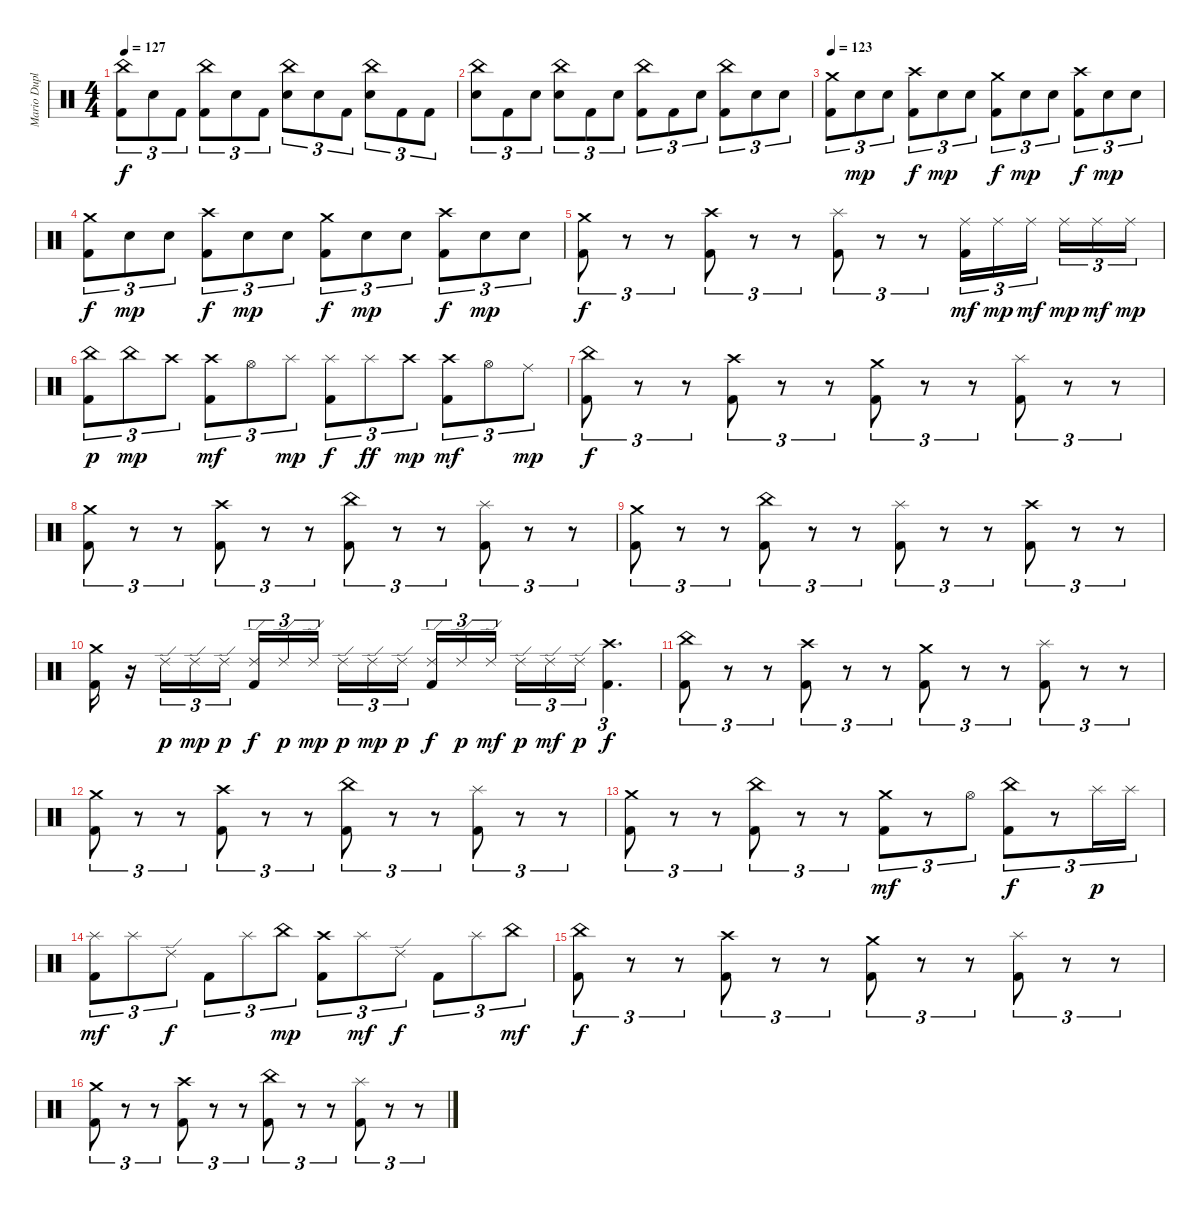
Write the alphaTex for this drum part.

\track ("Mario Duplantier" "Mario Dupl") {instrument percussion}
\staff {score}
\articulation defaults
\ts (4 4)
\tempo 127
\clef neutral
\ks c
("China (hit)" "Kick (hit) 2").8{tu (3 2) dy f} "Electric Snare (hit)".8{tu (3 2)} "Kick (hit) 2".8{tu (3 2)} ("China (hit)" "Kick (hit) 2").8{tu (3 2)} "Electric Snare (hit)".8{tu (3 2)} "Kick (hit) 2".8{tu (3 2)} ("China (hit)" "Electric Snare (hit)").8{tu (3 2)} "Electric Snare (hit)".8{tu (3 2)} "Kick (hit) 2".8{tu (3 2)} ("China (hit)" "Electric Snare (hit)").8{tu (3 2)} "Kick (hit) 2".8{tu (3 2)} "Kick (hit) 2".8{tu (3 2)} |
("China (hit)" "Electric Snare (hit)").8{tu (3 2)} "Kick (hit) 2".8{tu (3 2)} "Electric Snare (hit)".8{tu (3 2)} ("China (hit)" "Electric Snare (hit)").8{tu (3 2)} "Kick (hit) 2".8{tu (3 2)} "Electric Snare (hit)".8{tu (3 2)} ("China (hit)" "Kick (hit) 2").8{tu (3 2)} "Kick (hit) 2".8{tu (3 2)} "Electric Snare (hit)".8{tu (3 2)} ("China (hit)" "Kick (hit) 2").8{tu (3 2)} "Electric Snare (hit)".8{tu (3 2)} "Electric Snare (hit)".8{tu (3 2)} |
\tempo 123
("Crash medium (hit)" "Kick (hit) 2").8{tu (3 2)} "Electric Snare (hit)".8{tu (3 2) dy mp} "Electric Snare (hit)".8{tu (3 2)} ("Crash high (hit)" "Kick (hit) 2").8{tu (3 2) dy f} "Electric Snare (hit)".8{tu (3 2) dy mp} "Electric Snare (hit)".8{tu (3 2)} ("Crash medium (hit)" "Kick (hit) 2").8{tu (3 2) dy f} "Electric Snare (hit)".8{tu (3 2) dy mp} "Electric Snare (hit)".8{tu (3 2)} ("Crash high (hit)" "Kick (hit) 2").8{tu (3 2) dy f} "Electric Snare (hit)".8{tu (3 2) dy mp} "Electric Snare (hit)".8{tu (3 2)} |
("Crash medium (hit)" "Kick (hit) 2").8{tu (3 2) dy f} "Electric Snare (hit)".8{tu (3 2) dy mp} "Electric Snare (hit)".8{tu (3 2)} ("Crash high (hit)" "Kick (hit) 2").8{tu (3 2) dy f} "Electric Snare (hit)".8{tu (3 2) dy mp} "Electric Snare (hit)".8{tu (3 2)} ("Crash medium (hit)" "Kick (hit) 2").8{tu (3 2) dy f} "Electric Snare (hit)".8{tu (3 2) dy mp} "Electric Snare (hit)".8{tu (3 2)} ("Crash high (hit)" "Kick (hit) 2").8{tu (3 2) dy f} "Electric Snare (hit)".8{tu (3 2) dy mp} "Electric Snare (hit)".8{tu (3 2)} |
("Crash medium (hit)" "Kick (hit) 2").8{tu (3 2) dy f} r.8{tu (3 2)} r.8{tu (3 2)} ("Crash high (hit)" "Kick (hit) 2").8{tu (3 2)} r.8{tu (3 2)} r.8{tu (3 2)} ("Splash (hit)" "Kick (hit) 2").8{tu (3 2)} r.8{tu (3 2)} r.8{tu (3 2)} ("Ride (middle)" "Kick (hit) 2").16{tu (3 2) dy mf} "Ride (middle)".16{tu (3 2) dy mp} "Ride (middle)".16{tu (3 2) dy mf beam splitsecondary} "Ride (middle)".16{tu (3 2) dy mp} "Ride (middle)".16{tu (3 2) dy mf} "Ride (middle)".16{tu (3 2) dy mp} |
("China (hit)" "Kick (hit) 2").8{tu (3 2) dy p} "China (hit)".8{tu (3 2) dy mp} "Crash high (hit)".8{tu (3 2)} ("Crash high (hit)" "Kick (hit) 2").8{tu (3 2) dy mf} "Hi-Hat (open)".8{tu (3 2)} "Splash (hit)".8{tu (3 2) dy mp} ("Splash (hit)" "Kick (hit) 2").8{tu (3 2) dy f} "Splash (hit)".8{tu (3 2) dy ff} "Crash high (hit)".8{tu (3 2) dy mp} ("Crash high (hit)" "Kick (hit) 2").8{tu (3 2) dy mf} "Hi-Hat (open)".8{tu (3 2)} "Ride (middle)".8{tu (3 2) dy mp} |
("China (hit)" "Kick (hit) 2").8{tu (3 2) dy f} r.8{tu (3 2)} r.8{tu (3 2)} ("Crash high (hit)" "Kick (hit) 2").8{tu (3 2)} r.8{tu (3 2)} r.8{tu (3 2)} ("Crash medium (hit)" "Kick (hit) 2").8{tu (3 2)} r.8{tu (3 2)} r.8{tu (3 2)} ("Splash (hit)" "Kick (hit) 2").8{tu (3 2)} r.8{tu (3 2)} r.8{tu (3 2)} |
("Crash medium (hit)" "Kick (hit) 2").8{tu (3 2)} r.8{tu (3 2)} r.8{tu (3 2)} ("Crash high (hit)" "Kick (hit) 2").8{tu (3 2)} r.8{tu (3 2)} r.8{tu (3 2)} ("China (hit)" "Kick (hit) 2").8{tu (3 2)} r.8{tu (3 2)} r.8{tu (3 2)} ("Splash (hit)" "Kick (hit) 2").8{tu (3 2)} r.8{tu (3 2)} r.8{tu (3 2)} |
("Crash medium (hit)" "Kick (hit) 2").8{tu (3 2)} r.8{tu (3 2)} r.8{tu (3 2)} ("China (hit)" "Kick (hit) 2").8{tu (3 2)} r.8{tu (3 2)} r.8{tu (3 2)} ("Splash (hit)" "Kick (hit) 2").8{tu (3 2)} r.8{tu (3 2)} r.8{tu (3 2)} ("Crash high (hit)" "Kick (hit) 2").8{tu (3 2)} r.8{tu (3 2)} r.8{tu (3 2)} |
("Crash medium (hit)" "Kick (hit) 2").16 r.16 "Ride (edge) 2".16{tu (3 2) dy p} "Ride (edge) 2".16{tu (3 2) dy mp} "Ride (edge) 2".16{tu (3 2) dy p} ("Ride (edge) 2" "Kick (hit) 2").16{tu (3 2) dy f} "Ride (edge) 2".16{tu (3 2) dy p} "Ride (edge) 2".16{tu (3 2) dy mp beam splitsecondary} "Ride (edge) 2".16{tu (3 2) dy p} "Ride (edge) 2".16{tu (3 2) dy mp} "Ride (edge) 2".16{tu (3 2) dy p} ("Ride (edge) 2" "Kick (hit) 2").16{tu (3 2) dy f} "Ride (edge) 2".16{tu (3 2) dy p} "Ride (edge) 2".16{tu (3 2) dy mf beam splitsecondary} "Ride (edge) 2".16{tu (3 2) dy p} "Ride (edge) 2".16{tu (3 2) dy mf} "Ride (edge) 2".16{tu (3 2) dy p} ("Crash high (hit)" "Kick (hit) 2").4{d tu (3 2) dy f} |
("China (hit)" "Kick (hit) 2").8{tu (3 2)} r.8{tu (3 2)} r.8{tu (3 2)} ("Crash high (hit)" "Kick (hit) 2").8{tu (3 2)} r.8{tu (3 2)} r.8{tu (3 2)} ("Crash medium (hit)" "Kick (hit) 2").8{tu (3 2)} r.8{tu (3 2)} r.8{tu (3 2)} ("Splash (hit)" "Kick (hit) 2").8{tu (3 2)} r.8{tu (3 2)} r.8{tu (3 2)} |
("Crash medium (hit)" "Kick (hit) 2").8{tu (3 2)} r.8{tu (3 2)} r.8{tu (3 2)} ("Crash high (hit)" "Kick (hit) 2").8{tu (3 2)} r.8{tu (3 2)} r.8{tu (3 2)} ("China (hit)" "Kick (hit) 2").8{tu (3 2)} r.8{tu (3 2)} r.8{tu (3 2)} ("Splash (hit)" "Kick (hit) 2").8{tu (3 2)} r.8{tu (3 2)} r.8{tu (3 2)} |
("Crash medium (hit)" "Kick (hit) 2").8{tu (3 2)} r.8{tu (3 2)} r.8{tu (3 2)} ("China (hit)" "Kick (hit) 2").8{tu (3 2)} r.8{tu (3 2)} r.8{tu (3 2)} ("Crash medium (hit)" "Kick (hit) 2").8{tu (3 2) dy mf} r.8{tu (3 2)} "Hi-Hat (open)".8{tu (3 2)} ("China (hit)" "Kick (hit) 2").8{tu (3 2) dy f} r.8{tu (3 2)} "Splash (hit)".16{tu (3 2) dy p} "Splash (hit)".16{tu (3 2)} |
("Splash (hit)" "Kick (hit) 2").8{tu (3 2) dy mf} "Splash (hit)".8{tu (3 2)} "Ride (edge) 2".8{tu (3 2) dy f} "Kick (hit) 2".8{tu (3 2)} "Splash (hit)".8{tu (3 2)} "China (hit)".8{tu (3 2) dy mp} ("Crash high (hit)" "Kick (hit) 2").8{tu (3 2)} "Splash (hit)".8{tu (3 2) dy mf} "Ride (edge) 2".8{tu (3 2) dy f} "Kick (hit) 2".8{tu (3 2)} "Splash (hit)".8{tu (3 2)} "China (hit)".8{tu (3 2) dy mf} |
("China (hit)" "Kick (hit) 2").8{tu (3 2) dy f} r.8{tu (3 2)} r.8{tu (3 2)} ("Crash high (hit)" "Kick (hit) 2").8{tu (3 2)} r.8{tu (3 2)} r.8{tu (3 2)} ("Crash medium (hit)" "Kick (hit) 2").8{tu (3 2)} r.8{tu (3 2)} r.8{tu (3 2)} ("Splash (hit)" "Kick (hit) 2").8{tu (3 2)} r.8{tu (3 2)} r.8{tu (3 2)} |
("Crash medium (hit)" "Kick (hit) 2").8{tu (3 2)} r.8{tu (3 2)} r.8{tu (3 2)} ("Crash high (hit)" "Kick (hit) 2").8{tu (3 2)} r.8{tu (3 2)} r.8{tu (3 2)} ("China (hit)" "Kick (hit) 2").8{tu (3 2)} r.8{tu (3 2)} r.8{tu (3 2)} ("Splash (hit)" "Kick (hit) 2").8{tu (3 2)} r.8{tu (3 2)} r.8{tu (3 2)}
